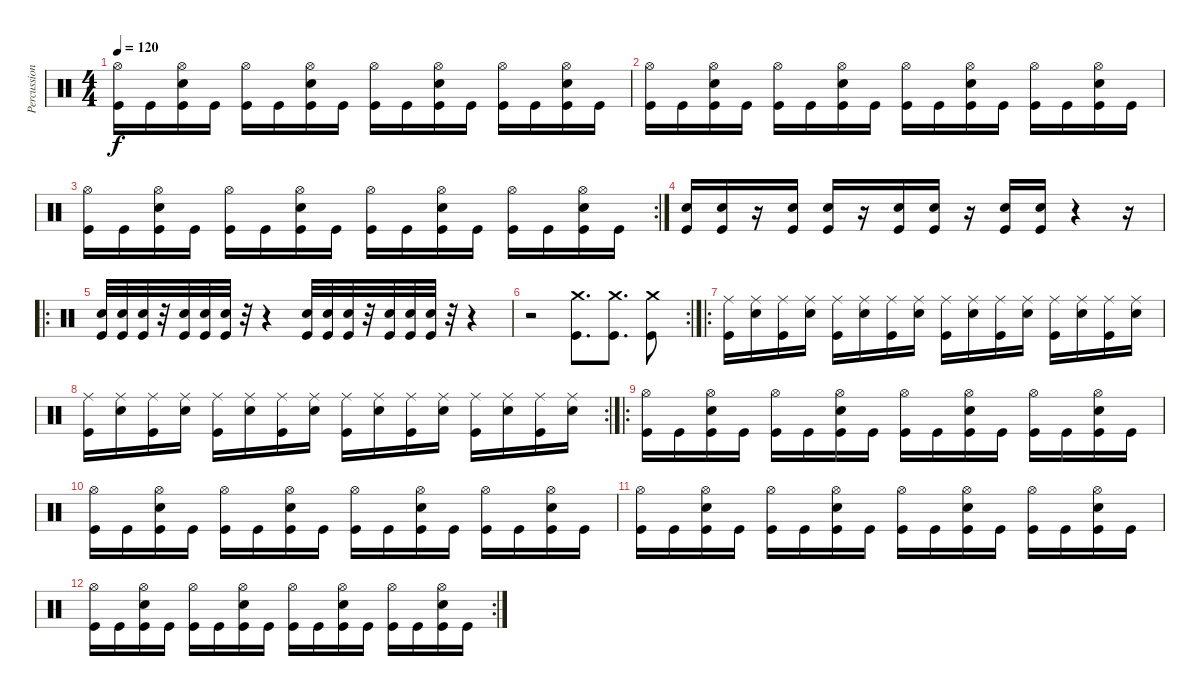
\track ("Percussion" "Percussion") {instrument percussion}
\staff {score}
\articulation defaults
\ts (4 4)
\tempo 120
\clef neutral
\ks c
("Hi-Hat (open)" "Kick (hit)").16{dy f} "Kick (hit)".16 ("Hi-Hat (open)" "Snare (hit) 2" "Kick (hit)").16 "Kick (hit)".16 ("Hi-Hat (open)" "Kick (hit)").16 "Kick (hit)".16 ("Hi-Hat (open)" "Snare (hit) 2" "Kick (hit)").16 "Kick (hit)".16 ("Hi-Hat (open)" "Kick (hit)").16 "Kick (hit)".16 ("Hi-Hat (open)" "Snare (hit) 2" "Kick (hit)").16 "Kick (hit)".16 ("Hi-Hat (open)" "Kick (hit)").16 "Kick (hit)".16 ("Hi-Hat (open)" "Snare (hit) 2" "Kick (hit)").16 "Kick (hit)".16 |
("Hi-Hat (open)" "Kick (hit)").16 "Kick (hit)".16 ("Hi-Hat (open)" "Snare (hit) 2" "Kick (hit)").16 "Kick (hit)".16 ("Hi-Hat (open)" "Kick (hit)").16 "Kick (hit)".16 ("Hi-Hat (open)" "Snare (hit) 2" "Kick (hit)").16 "Kick (hit)".16 ("Hi-Hat (open)" "Kick (hit)").16 "Kick (hit)".16 ("Hi-Hat (open)" "Snare (hit) 2" "Kick (hit)").16 "Kick (hit)".16 ("Hi-Hat (open)" "Kick (hit)").16 "Kick (hit)".16 ("Hi-Hat (open)" "Snare (hit) 2" "Kick (hit)").16 "Kick (hit)".16 |
\rc 2
("Hi-Hat (open)" "Kick (hit)").16 "Kick (hit)".16 ("Hi-Hat (open)" "Snare (hit) 2" "Kick (hit)").16 "Kick (hit)".16 ("Hi-Hat (open)" "Kick (hit)").16 "Kick (hit)".16 ("Hi-Hat (open)" "Snare (hit) 2" "Kick (hit)").16 "Kick (hit)".16 ("Hi-Hat (open)" "Kick (hit)").16 "Kick (hit)".16 ("Hi-Hat (open)" "Snare (hit) 2" "Kick (hit)").16 "Kick (hit)".16 ("Hi-Hat (open)" "Kick (hit)").16 "Kick (hit)".16 ("Hi-Hat (open)" "Snare (hit) 2" "Kick (hit)").16 "Kick (hit)".16 |
("Snare (hit) 2" "Kick (hit)").16 ("Snare (hit) 2" "Kick (hit)").16 r.16 ("Snare (hit) 2" "Kick (hit)").16 ("Snare (hit) 2" "Kick (hit)").16 r.16 ("Snare (hit) 2" "Kick (hit)").16 ("Snare (hit) 2" "Kick (hit)").16 r.16 ("Snare (hit) 2" "Kick (hit)").16 ("Snare (hit) 2" "Kick (hit)").16 r.4 r.16 |
\ro
("Snare (hit) 2" "Kick (hit)").32 ("Snare (hit) 2" "Kick (hit)").32 ("Snare (hit) 2" "Kick (hit)").32 r.32 ("Snare (hit) 2" "Kick (hit)").32 ("Snare (hit) 2" "Kick (hit)").32 ("Snare (hit) 2" "Kick (hit)").32 r.32 r.4 ("Snare (hit) 2" "Kick (hit)").32 ("Snare (hit) 2" "Kick (hit)").32 ("Snare (hit) 2" "Kick (hit)").32 r.32 ("Snare (hit) 2" "Kick (hit)").32 ("Snare (hit) 2" "Kick (hit)").32 ("Snare (hit) 2" "Kick (hit)").32 r.32 r.4 |
\rc 2
r.2 ("Crash medium (hit)" "Kick (hit)").8{d} ("Crash medium (hit)" "Kick (hit)").8{d} ("Crash medium (hit)" "Kick (hit)").8 |
\ro
("Ride (middle)" "Kick (hit)").16 ("Ride (middle)" "Snare (hit) 2").16 ("Ride (middle)" "Kick (hit)").16 ("Ride (middle)" "Snare (hit) 2").16 ("Ride (middle)" "Kick (hit)").16 ("Ride (middle)" "Snare (hit) 2").16 ("Ride (middle)" "Kick (hit)").16 ("Ride (middle)" "Snare (hit) 2").16 ("Ride (middle)" "Kick (hit)").16 ("Ride (middle)" "Snare (hit) 2").16 ("Ride (middle)" "Kick (hit)").16 ("Ride (middle)" "Snare (hit) 2").16 ("Ride (middle)" "Kick (hit)").16 ("Ride (middle)" "Snare (hit) 2").16 ("Ride (middle)" "Kick (hit)").16 ("Ride (middle)" "Snare (hit) 2").16 |
\rc 2
("Ride (middle)" "Kick (hit)").16 ("Ride (middle)" "Snare (hit) 2").16 ("Ride (middle)" "Kick (hit)").16 ("Ride (middle)" "Snare (hit) 2").16 ("Ride (middle)" "Kick (hit)").16 ("Ride (middle)" "Snare (hit) 2").16 ("Ride (middle)" "Kick (hit)").16 ("Ride (middle)" "Snare (hit) 2").16 ("Ride (middle)" "Kick (hit)").16 ("Ride (middle)" "Snare (hit) 2").16 ("Ride (middle)" "Kick (hit)").16 ("Ride (middle)" "Snare (hit) 2").16 ("Ride (middle)" "Kick (hit)").16 ("Ride (middle)" "Snare (hit) 2").16 ("Ride (middle)" "Kick (hit)").16 ("Ride (middle)" "Snare (hit) 2").16 |
\ro
("Hi-Hat (open)" "Kick (hit)").16 "Kick (hit)".16 ("Hi-Hat (open)" "Snare (hit) 2" "Kick (hit)").16 "Kick (hit)".16 ("Hi-Hat (open)" "Kick (hit)").16 "Kick (hit)".16 ("Hi-Hat (open)" "Snare (hit) 2" "Kick (hit)").16 "Kick (hit)".16 ("Hi-Hat (open)" "Kick (hit)").16 "Kick (hit)".16 ("Hi-Hat (open)" "Snare (hit) 2" "Kick (hit)").16 "Kick (hit)".16 ("Hi-Hat (open)" "Kick (hit)").16 "Kick (hit)".16 ("Hi-Hat (open)" "Snare (hit) 2" "Kick (hit)").16 "Kick (hit)".16 |
("Hi-Hat (open)" "Kick (hit)").16 "Kick (hit)".16 ("Hi-Hat (open)" "Snare (hit) 2" "Kick (hit)").16 "Kick (hit)".16 ("Hi-Hat (open)" "Kick (hit)").16 "Kick (hit)".16 ("Hi-Hat (open)" "Snare (hit) 2" "Kick (hit)").16 "Kick (hit)".16 ("Hi-Hat (open)" "Kick (hit)").16 "Kick (hit)".16 ("Hi-Hat (open)" "Snare (hit) 2" "Kick (hit)").16 "Kick (hit)".16 ("Hi-Hat (open)" "Kick (hit)").16 "Kick (hit)".16 ("Hi-Hat (open)" "Snare (hit) 2" "Kick (hit)").16 "Kick (hit)".16 |
("Hi-Hat (open)" "Kick (hit)").16 "Kick (hit)".16 ("Hi-Hat (open)" "Snare (hit) 2" "Kick (hit)").16 "Kick (hit)".16 ("Hi-Hat (open)" "Kick (hit)").16 "Kick (hit)".16 ("Hi-Hat (open)" "Snare (hit) 2" "Kick (hit)").16 "Kick (hit)".16 ("Hi-Hat (open)" "Kick (hit)").16 "Kick (hit)".16 ("Hi-Hat (open)" "Snare (hit) 2" "Kick (hit)").16 "Kick (hit)".16 ("Hi-Hat (open)" "Kick (hit)").16 "Kick (hit)".16 ("Hi-Hat (open)" "Snare (hit) 2" "Kick (hit)").16 "Kick (hit)".16 |
\rc 2
("Hi-Hat (open)" "Kick (hit)").16 "Kick (hit)".16 ("Hi-Hat (open)" "Snare (hit) 2" "Kick (hit)").16 "Kick (hit)".16 ("Hi-Hat (open)" "Kick (hit)").16 "Kick (hit)".16 ("Hi-Hat (open)" "Snare (hit) 2" "Kick (hit)").16 "Kick (hit)".16 ("Hi-Hat (open)" "Kick (hit)").16 "Kick (hit)".16 ("Hi-Hat (open)" "Snare (hit) 2" "Kick (hit)").16 "Kick (hit)".16 ("Hi-Hat (open)" "Kick (hit)").16 "Kick (hit)".16 ("Hi-Hat (open)" "Snare (hit) 2" "Kick (hit)").16 "Kick (hit)".16
